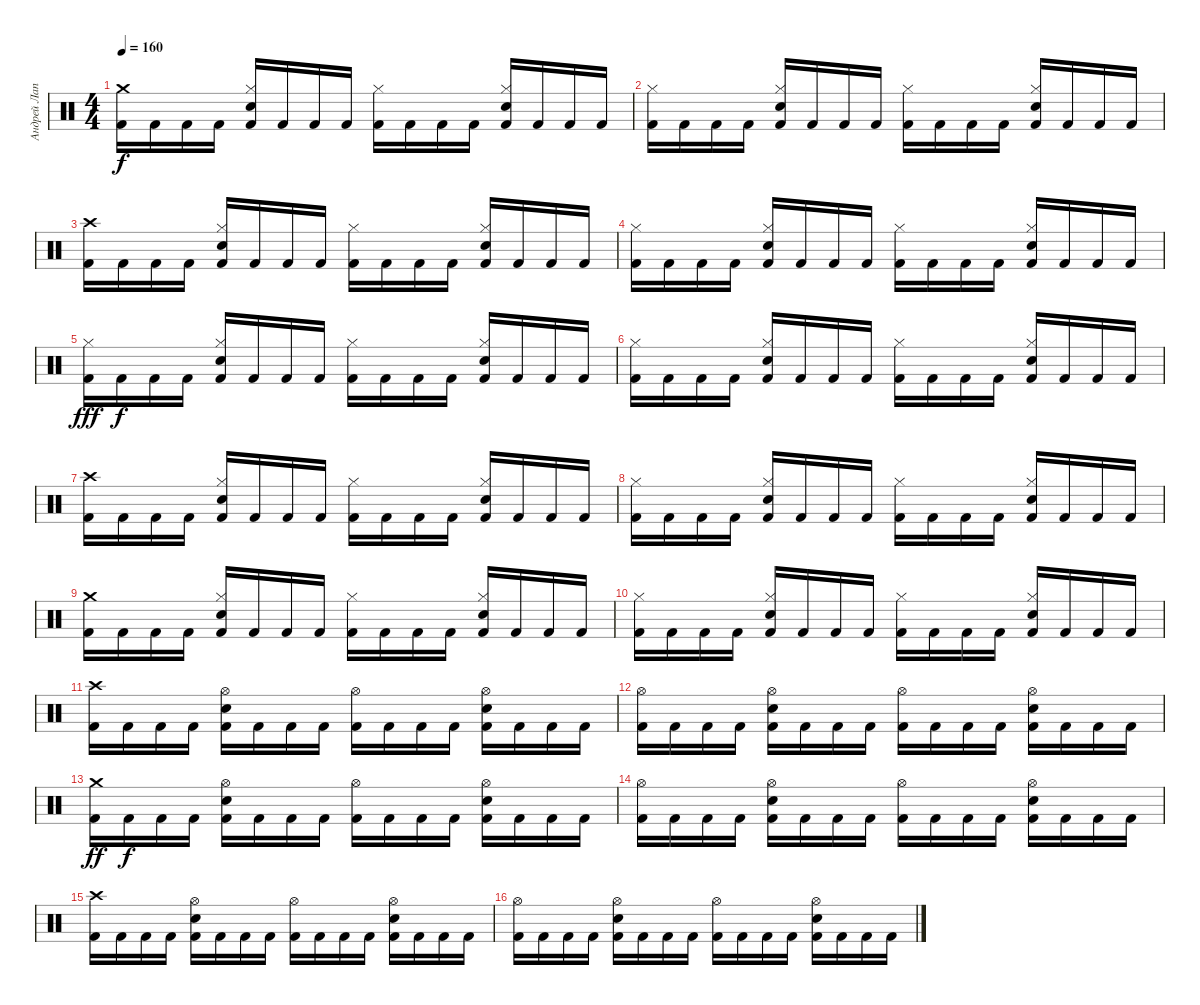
\track ("Андрей Лаптев" "Андрей Лап") {instrument percussion}
\staff {score}
\articulation defaults
\ts (4 4)
\tempo 160
\clef neutral
\ks c
("Crash medium (hit)" "Kick (hit) 2").16{dy f} "Kick (hit) 2".16 "Kick (hit) 2".16 "Kick (hit) 2".16 ("Hi-Hat (closed)" "Electric Snare (hit)" "Kick (hit) 2").16 "Kick (hit) 2".16 "Kick (hit) 2".16 "Kick (hit) 2".16 ("Hi-Hat (closed)" "Kick (hit) 2").16 "Kick (hit) 2".16 "Kick (hit) 2".16 "Kick (hit) 2".16 ("Hi-Hat (closed)" "Electric Snare (hit)" "Kick (hit) 2").16 "Kick (hit) 2".16 "Kick (hit) 2".16 "Kick (hit) 2".16 |
("Hi-Hat (closed)" "Kick (hit) 2").16 "Kick (hit) 2".16 "Kick (hit) 2".16 "Kick (hit) 2".16 ("Hi-Hat (closed)" "Electric Snare (hit)" "Kick (hit) 2").16 "Kick (hit) 2".16 "Kick (hit) 2".16 "Kick (hit) 2".16 ("Hi-Hat (closed)" "Kick (hit) 2").16 "Kick (hit) 2".16 "Kick (hit) 2".16 "Kick (hit) 2".16 ("Hi-Hat (closed)" "Electric Snare (hit)" "Kick (hit) 2").16 "Kick (hit) 2".16 "Kick (hit) 2".16 "Kick (hit) 2".16 |
("Crash high (hit)" "Kick (hit) 2").16 "Kick (hit) 2".16 "Kick (hit) 2".16 "Kick (hit) 2".16 ("Hi-Hat (closed)" "Electric Snare (hit)" "Kick (hit) 2").16 "Kick (hit) 2".16 "Kick (hit) 2".16 "Kick (hit) 2".16 ("Hi-Hat (closed)" "Kick (hit) 2").16 "Kick (hit) 2".16 "Kick (hit) 2".16 "Kick (hit) 2".16 ("Hi-Hat (closed)" "Electric Snare (hit)" "Kick (hit) 2").16 "Kick (hit) 2".16 "Kick (hit) 2".16 "Kick (hit) 2".16 |
("Hi-Hat (closed)" "Kick (hit) 2").16 "Kick (hit) 2".16 "Kick (hit) 2".16 "Kick (hit) 2".16 ("Hi-Hat (closed)" "Electric Snare (hit)" "Kick (hit) 2").16 "Kick (hit) 2".16 "Kick (hit) 2".16 "Kick (hit) 2".16 ("Hi-Hat (closed)" "Kick (hit) 2").16 "Kick (hit) 2".16 "Kick (hit) 2".16 "Kick (hit) 2".16 ("Hi-Hat (closed)" "Electric Snare (hit)" "Kick (hit) 2").16 "Kick (hit) 2".16 "Kick (hit) 2".16 "Kick (hit) 2".16 |
("Hi-Hat (closed)" "Kick (hit) 2").16{dy fff} "Kick (hit) 2".16{dy f} "Kick (hit) 2".16 "Kick (hit) 2".16 ("Hi-Hat (closed)" "Electric Snare (hit)" "Kick (hit) 2").16 "Kick (hit) 2".16 "Kick (hit) 2".16 "Kick (hit) 2".16 ("Hi-Hat (closed)" "Kick (hit) 2").16 "Kick (hit) 2".16 "Kick (hit) 2".16 "Kick (hit) 2".16 ("Hi-Hat (closed)" "Electric Snare (hit)" "Kick (hit) 2").16 "Kick (hit) 2".16 "Kick (hit) 2".16 "Kick (hit) 2".16 |
("Hi-Hat (closed)" "Kick (hit) 2").16 "Kick (hit) 2".16 "Kick (hit) 2".16 "Kick (hit) 2".16 ("Hi-Hat (closed)" "Electric Snare (hit)" "Kick (hit) 2").16 "Kick (hit) 2".16 "Kick (hit) 2".16 "Kick (hit) 2".16 ("Hi-Hat (closed)" "Kick (hit) 2").16 "Kick (hit) 2".16 "Kick (hit) 2".16 "Kick (hit) 2".16 ("Hi-Hat (closed)" "Electric Snare (hit)" "Kick (hit) 2").16 "Kick (hit) 2".16 "Kick (hit) 2".16 "Kick (hit) 2".16 |
("Crash high (hit)" "Kick (hit) 2").16 "Kick (hit) 2".16 "Kick (hit) 2".16 "Kick (hit) 2".16 ("Hi-Hat (closed)" "Electric Snare (hit)" "Kick (hit) 2").16 "Kick (hit) 2".16 "Kick (hit) 2".16 "Kick (hit) 2".16 ("Hi-Hat (closed)" "Kick (hit) 2").16 "Kick (hit) 2".16 "Kick (hit) 2".16 "Kick (hit) 2".16 ("Hi-Hat (closed)" "Electric Snare (hit)" "Kick (hit) 2").16 "Kick (hit) 2".16 "Kick (hit) 2".16 "Kick (hit) 2".16 |
("Hi-Hat (closed)" "Kick (hit) 2").16 "Kick (hit) 2".16 "Kick (hit) 2".16 "Kick (hit) 2".16 ("Hi-Hat (closed)" "Electric Snare (hit)" "Kick (hit) 2").16 "Kick (hit) 2".16 "Kick (hit) 2".16 "Kick (hit) 2".16 ("Hi-Hat (closed)" "Kick (hit) 2").16 "Kick (hit) 2".16 "Kick (hit) 2".16 "Kick (hit) 2".16 ("Hi-Hat (closed)" "Electric Snare (hit)" "Kick (hit) 2").16 "Kick (hit) 2".16 "Kick (hit) 2".16 "Kick (hit) 2".16 |
("Crash medium (hit)" "Kick (hit) 2").16 "Kick (hit) 2".16 "Kick (hit) 2".16 "Kick (hit) 2".16 ("Hi-Hat (closed)" "Electric Snare (hit)" "Kick (hit) 2").16 "Kick (hit) 2".16 "Kick (hit) 2".16 "Kick (hit) 2".16 ("Hi-Hat (closed)" "Kick (hit) 2").16 "Kick (hit) 2".16 "Kick (hit) 2".16 "Kick (hit) 2".16 ("Hi-Hat (closed)" "Electric Snare (hit)" "Kick (hit) 2").16 "Kick (hit) 2".16 "Kick (hit) 2".16 "Kick (hit) 2".16 |
("Hi-Hat (closed)" "Kick (hit) 2").16 "Kick (hit) 2".16 "Kick (hit) 2".16 "Kick (hit) 2".16 ("Hi-Hat (closed)" "Electric Snare (hit)" "Kick (hit) 2").16 "Kick (hit) 2".16 "Kick (hit) 2".16 "Kick (hit) 2".16 ("Hi-Hat (closed)" "Kick (hit) 2").16 "Kick (hit) 2".16 "Kick (hit) 2".16 "Kick (hit) 2".16 ("Hi-Hat (closed)" "Electric Snare (hit)" "Kick (hit) 2").16 "Kick (hit) 2".16 "Kick (hit) 2".16 "Kick (hit) 2".16 |
("Crash high (hit)" "Kick (hit) 2").16 "Kick (hit) 2".16 "Kick (hit) 2".16 "Kick (hit) 2".16 ("Hi-Hat (open)" "Electric Snare (hit)" "Kick (hit) 2").16 "Kick (hit) 2".16 "Kick (hit) 2".16 "Kick (hit) 2".16 ("Hi-Hat (open)" "Kick (hit) 2").16 "Kick (hit) 2".16 "Kick (hit) 2".16 "Kick (hit) 2".16 ("Hi-Hat (open)" "Electric Snare (hit)" "Kick (hit) 2").16 "Kick (hit) 2".16 "Kick (hit) 2".16 "Kick (hit) 2".16 |
("Hi-Hat (open)" "Kick (hit) 2").16 "Kick (hit) 2".16 "Kick (hit) 2".16 "Kick (hit) 2".16 ("Hi-Hat (open)" "Electric Snare (hit)" "Kick (hit) 2").16 "Kick (hit) 2".16 "Kick (hit) 2".16 "Kick (hit) 2".16 ("Hi-Hat (open)" "Kick (hit) 2").16 "Kick (hit) 2".16 "Kick (hit) 2".16 "Kick (hit) 2".16 ("Hi-Hat (open)" "Electric Snare (hit)" "Kick (hit) 2").16 "Kick (hit) 2".16 "Kick (hit) 2".16 "Kick (hit) 2".16 |
("Crash medium (hit)" "Kick (hit) 2").16{dy ff} "Kick (hit) 2".16{dy f} "Kick (hit) 2".16 "Kick (hit) 2".16 ("Hi-Hat (open)" "Electric Snare (hit)" "Kick (hit) 2").16 "Kick (hit) 2".16 "Kick (hit) 2".16 "Kick (hit) 2".16 ("Hi-Hat (open)" "Kick (hit) 2").16 "Kick (hit) 2".16 "Kick (hit) 2".16 "Kick (hit) 2".16 ("Hi-Hat (open)" "Electric Snare (hit)" "Kick (hit) 2").16 "Kick (hit) 2".16 "Kick (hit) 2".16 "Kick (hit) 2".16 |
("Hi-Hat (open)" "Kick (hit) 2").16 "Kick (hit) 2".16 "Kick (hit) 2".16 "Kick (hit) 2".16 ("Hi-Hat (open)" "Electric Snare (hit)" "Kick (hit) 2").16 "Kick (hit) 2".16 "Kick (hit) 2".16 "Kick (hit) 2".16 ("Hi-Hat (open)" "Kick (hit) 2").16 "Kick (hit) 2".16 "Kick (hit) 2".16 "Kick (hit) 2".16 ("Hi-Hat (open)" "Electric Snare (hit)" "Kick (hit) 2").16 "Kick (hit) 2".16 "Kick (hit) 2".16 "Kick (hit) 2".16 |
("Crash high (hit)" "Kick (hit) 2").16 "Kick (hit) 2".16 "Kick (hit) 2".16 "Kick (hit) 2".16 ("Hi-Hat (open)" "Electric Snare (hit)" "Kick (hit) 2").16 "Kick (hit) 2".16 "Kick (hit) 2".16 "Kick (hit) 2".16 ("Hi-Hat (open)" "Kick (hit) 2").16 "Kick (hit) 2".16 "Kick (hit) 2".16 "Kick (hit) 2".16 ("Hi-Hat (open)" "Electric Snare (hit)" "Kick (hit) 2").16 "Kick (hit) 2".16 "Kick (hit) 2".16 "Kick (hit) 2".16 |
("Hi-Hat (open)" "Kick (hit) 2").16 "Kick (hit) 2".16 "Kick (hit) 2".16 "Kick (hit) 2".16 ("Hi-Hat (open)" "Electric Snare (hit)" "Kick (hit) 2").16 "Kick (hit) 2".16 "Kick (hit) 2".16 "Kick (hit) 2".16 ("Hi-Hat (open)" "Kick (hit) 2").16 "Kick (hit) 2".16 "Kick (hit) 2".16 "Kick (hit) 2".16 ("Hi-Hat (open)" "Electric Snare (hit)" "Kick (hit) 2").16 "Kick (hit) 2".16 "Kick (hit) 2".16 "Kick (hit) 2".16
